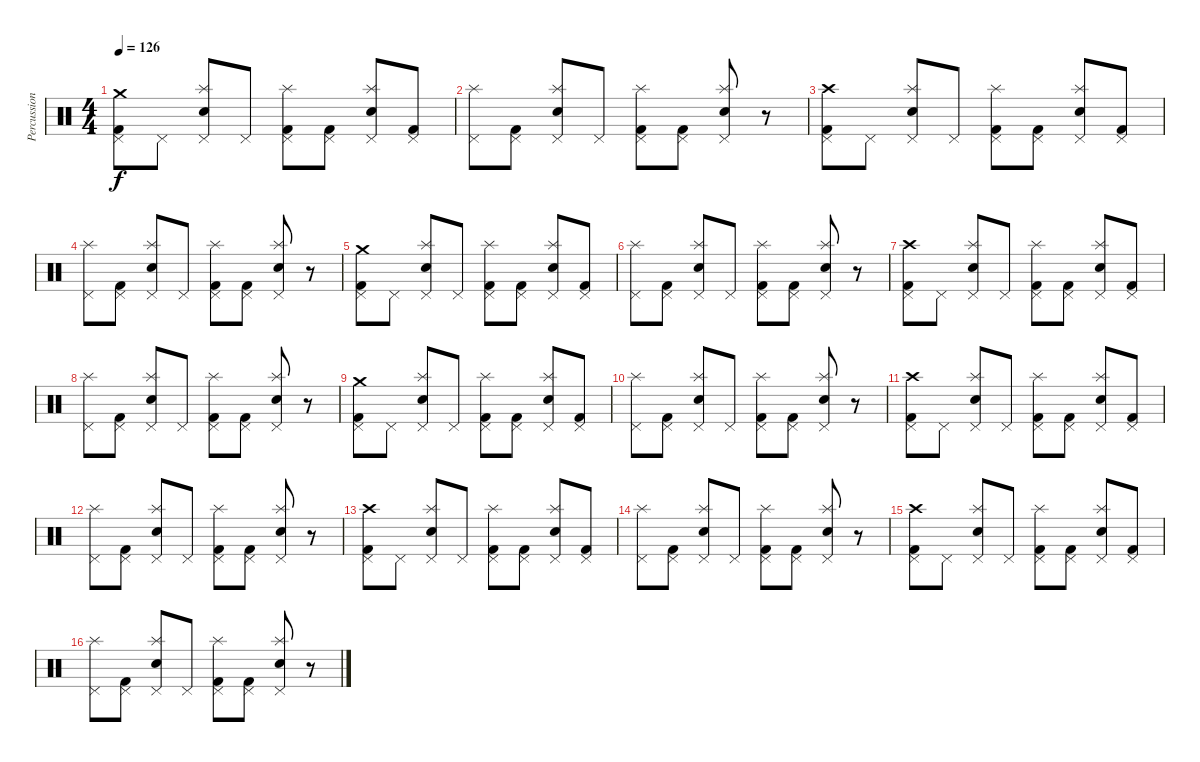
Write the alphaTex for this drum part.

\track ("Percussion" "Percussion") {instrument percussion}
\staff {score}
\articulation defaults
\ts (4 4)
\tempo 126
\clef neutral
\ks c
("Pedal Hi-Hat (hit)" "Kick (hit) 2" "Crash medium (hit)").8{dy f} "Pedal Hi-Hat (hit)".8 ("Pedal Hi-Hat (hit)" "Splash (hit)" "Electric Snare (hit)").8 "Pedal Hi-Hat (hit)".8 ("Pedal Hi-Hat (hit)" "Splash (hit)" "Kick (hit) 2").8 ("Pedal Hi-Hat (hit)" "Kick (hit) 2").8 ("Pedal Hi-Hat (hit)" "Splash (hit)" "Electric Snare (hit)").8 ("Pedal Hi-Hat (hit)" "Kick (hit) 2").8 |
("Pedal Hi-Hat (hit)" "Splash (hit)").8 ("Pedal Hi-Hat (hit)" "Kick (hit) 2").8 ("Pedal Hi-Hat (hit)" "Splash (hit)" "Electric Snare (hit)").8 "Pedal Hi-Hat (hit)".8 ("Pedal Hi-Hat (hit)" "Splash (hit)" "Kick (hit) 2").8 ("Pedal Hi-Hat (hit)" "Kick (hit) 2").8 ("Pedal Hi-Hat (hit)" "Splash (hit)" "Electric Snare (hit)").8 r.8 |
("Pedal Hi-Hat (hit)" "Kick (hit) 2" "Crash high (hit)").8 "Pedal Hi-Hat (hit)".8 ("Pedal Hi-Hat (hit)" "Electric Snare (hit)" "Splash (hit)").8 "Pedal Hi-Hat (hit)".8 ("Pedal Hi-Hat (hit)" "Kick (hit) 2" "Splash (hit)").8 ("Kick (hit) 2" "Pedal Hi-Hat (hit)").8 ("Splash (hit)" "Electric Snare (hit)" "Pedal Hi-Hat (hit)").8 ("Pedal Hi-Hat (hit)" "Kick (hit) 2").8 |
("Splash (hit)" "Pedal Hi-Hat (hit)").8 ("Kick (hit) 2" "Pedal Hi-Hat (hit)").8 ("Splash (hit)" "Electric Snare (hit)" "Pedal Hi-Hat (hit)").8 "Pedal Hi-Hat (hit)".8 ("Splash (hit)" "Kick (hit) 2" "Pedal Hi-Hat (hit)").8 ("Pedal Hi-Hat (hit)" "Kick (hit) 2").8 ("Pedal Hi-Hat (hit)" "Electric Snare (hit)" "Splash (hit)").8 r.8 |
("Pedal Hi-Hat (hit)" "Kick (hit) 2" "Crash medium (hit)").8 "Pedal Hi-Hat (hit)".8 ("Pedal Hi-Hat (hit)" "Splash (hit)" "Electric Snare (hit)").8 "Pedal Hi-Hat (hit)".8 ("Pedal Hi-Hat (hit)" "Splash (hit)" "Kick (hit) 2").8 ("Pedal Hi-Hat (hit)" "Kick (hit) 2").8 ("Pedal Hi-Hat (hit)" "Splash (hit)" "Electric Snare (hit)").8 ("Pedal Hi-Hat (hit)" "Kick (hit) 2").8 |
("Pedal Hi-Hat (hit)" "Splash (hit)").8 ("Pedal Hi-Hat (hit)" "Kick (hit) 2").8 ("Pedal Hi-Hat (hit)" "Splash (hit)" "Electric Snare (hit)").8 "Pedal Hi-Hat (hit)".8 ("Pedal Hi-Hat (hit)" "Splash (hit)" "Kick (hit) 2").8 ("Pedal Hi-Hat (hit)" "Kick (hit) 2").8 ("Pedal Hi-Hat (hit)" "Splash (hit)" "Electric Snare (hit)").8 r.8 |
("Pedal Hi-Hat (hit)" "Kick (hit) 2" "Crash high (hit)").8 "Pedal Hi-Hat (hit)".8 ("Pedal Hi-Hat (hit)" "Electric Snare (hit)" "Splash (hit)").8 "Pedal Hi-Hat (hit)".8 ("Pedal Hi-Hat (hit)" "Kick (hit) 2" "Splash (hit)").8 ("Kick (hit) 2" "Pedal Hi-Hat (hit)").8 ("Splash (hit)" "Electric Snare (hit)" "Pedal Hi-Hat (hit)").8 ("Pedal Hi-Hat (hit)" "Kick (hit) 2").8 |
("Splash (hit)" "Pedal Hi-Hat (hit)").8 ("Kick (hit) 2" "Pedal Hi-Hat (hit)").8 ("Splash (hit)" "Electric Snare (hit)" "Pedal Hi-Hat (hit)").8 "Pedal Hi-Hat (hit)".8 ("Splash (hit)" "Kick (hit) 2" "Pedal Hi-Hat (hit)").8 ("Pedal Hi-Hat (hit)" "Kick (hit) 2").8 ("Pedal Hi-Hat (hit)" "Electric Snare (hit)" "Splash (hit)").8 r.8 |
("Pedal Hi-Hat (hit)" "Kick (hit) 2" "Crash medium (hit)").8 "Pedal Hi-Hat (hit)".8 ("Pedal Hi-Hat (hit)" "Splash (hit)" "Electric Snare (hit)").8 "Pedal Hi-Hat (hit)".8 ("Pedal Hi-Hat (hit)" "Splash (hit)" "Kick (hit) 2").8 ("Pedal Hi-Hat (hit)" "Kick (hit) 2").8 ("Pedal Hi-Hat (hit)" "Splash (hit)" "Electric Snare (hit)").8 ("Pedal Hi-Hat (hit)" "Kick (hit) 2").8 |
("Pedal Hi-Hat (hit)" "Splash (hit)").8 ("Pedal Hi-Hat (hit)" "Kick (hit) 2").8 ("Pedal Hi-Hat (hit)" "Splash (hit)" "Electric Snare (hit)").8 "Pedal Hi-Hat (hit)".8 ("Pedal Hi-Hat (hit)" "Splash (hit)" "Kick (hit) 2").8 ("Pedal Hi-Hat (hit)" "Kick (hit) 2").8 ("Pedal Hi-Hat (hit)" "Splash (hit)" "Electric Snare (hit)").8 r.8 |
("Pedal Hi-Hat (hit)" "Kick (hit) 2" "Crash high (hit)").8 "Pedal Hi-Hat (hit)".8 ("Pedal Hi-Hat (hit)" "Electric Snare (hit)" "Splash (hit)").8 "Pedal Hi-Hat (hit)".8 ("Pedal Hi-Hat (hit)" "Kick (hit) 2" "Splash (hit)").8 ("Kick (hit) 2" "Pedal Hi-Hat (hit)").8 ("Splash (hit)" "Electric Snare (hit)" "Pedal Hi-Hat (hit)").8 ("Pedal Hi-Hat (hit)" "Kick (hit) 2").8 |
("Splash (hit)" "Pedal Hi-Hat (hit)").8 ("Kick (hit) 2" "Pedal Hi-Hat (hit)").8 ("Splash (hit)" "Electric Snare (hit)" "Pedal Hi-Hat (hit)").8 "Pedal Hi-Hat (hit)".8 ("Splash (hit)" "Kick (hit) 2" "Pedal Hi-Hat (hit)").8 ("Pedal Hi-Hat (hit)" "Kick (hit) 2").8 ("Pedal Hi-Hat (hit)" "Electric Snare (hit)" "Splash (hit)").8 r.8 |
("Pedal Hi-Hat (hit)" "Kick (hit) 2" "Crash high (hit)").8 "Pedal Hi-Hat (hit)".8 ("Pedal Hi-Hat (hit)" "Electric Snare (hit)" "Splash (hit)").8 "Pedal Hi-Hat (hit)".8 ("Pedal Hi-Hat (hit)" "Kick (hit) 2" "Splash (hit)").8 ("Kick (hit) 2" "Pedal Hi-Hat (hit)").8 ("Splash (hit)" "Electric Snare (hit)" "Pedal Hi-Hat (hit)").8 ("Pedal Hi-Hat (hit)" "Kick (hit) 2").8 |
("Splash (hit)" "Pedal Hi-Hat (hit)").8 ("Kick (hit) 2" "Pedal Hi-Hat (hit)").8 ("Splash (hit)" "Electric Snare (hit)" "Pedal Hi-Hat (hit)").8 "Pedal Hi-Hat (hit)".8 ("Splash (hit)" "Kick (hit) 2" "Pedal Hi-Hat (hit)").8 ("Pedal Hi-Hat (hit)" "Kick (hit) 2").8 ("Pedal Hi-Hat (hit)" "Electric Snare (hit)" "Splash (hit)").8 r.8 |
("Pedal Hi-Hat (hit)" "Kick (hit) 2" "Crash high (hit)").8 "Pedal Hi-Hat (hit)".8 ("Pedal Hi-Hat (hit)" "Electric Snare (hit)" "Splash (hit)").8 "Pedal Hi-Hat (hit)".8 ("Pedal Hi-Hat (hit)" "Kick (hit) 2" "Splash (hit)").8 ("Kick (hit) 2" "Pedal Hi-Hat (hit)").8 ("Splash (hit)" "Electric Snare (hit)" "Pedal Hi-Hat (hit)").8 ("Pedal Hi-Hat (hit)" "Kick (hit) 2").8 |
("Splash (hit)" "Pedal Hi-Hat (hit)").8 ("Kick (hit) 2" "Pedal Hi-Hat (hit)").8 ("Splash (hit)" "Electric Snare (hit)" "Pedal Hi-Hat (hit)").8 "Pedal Hi-Hat (hit)".8 ("Splash (hit)" "Kick (hit) 2" "Pedal Hi-Hat (hit)").8 ("Pedal Hi-Hat (hit)" "Kick (hit) 2").8 ("Pedal Hi-Hat (hit)" "Electric Snare (hit)" "Splash (hit)").8 r.8
